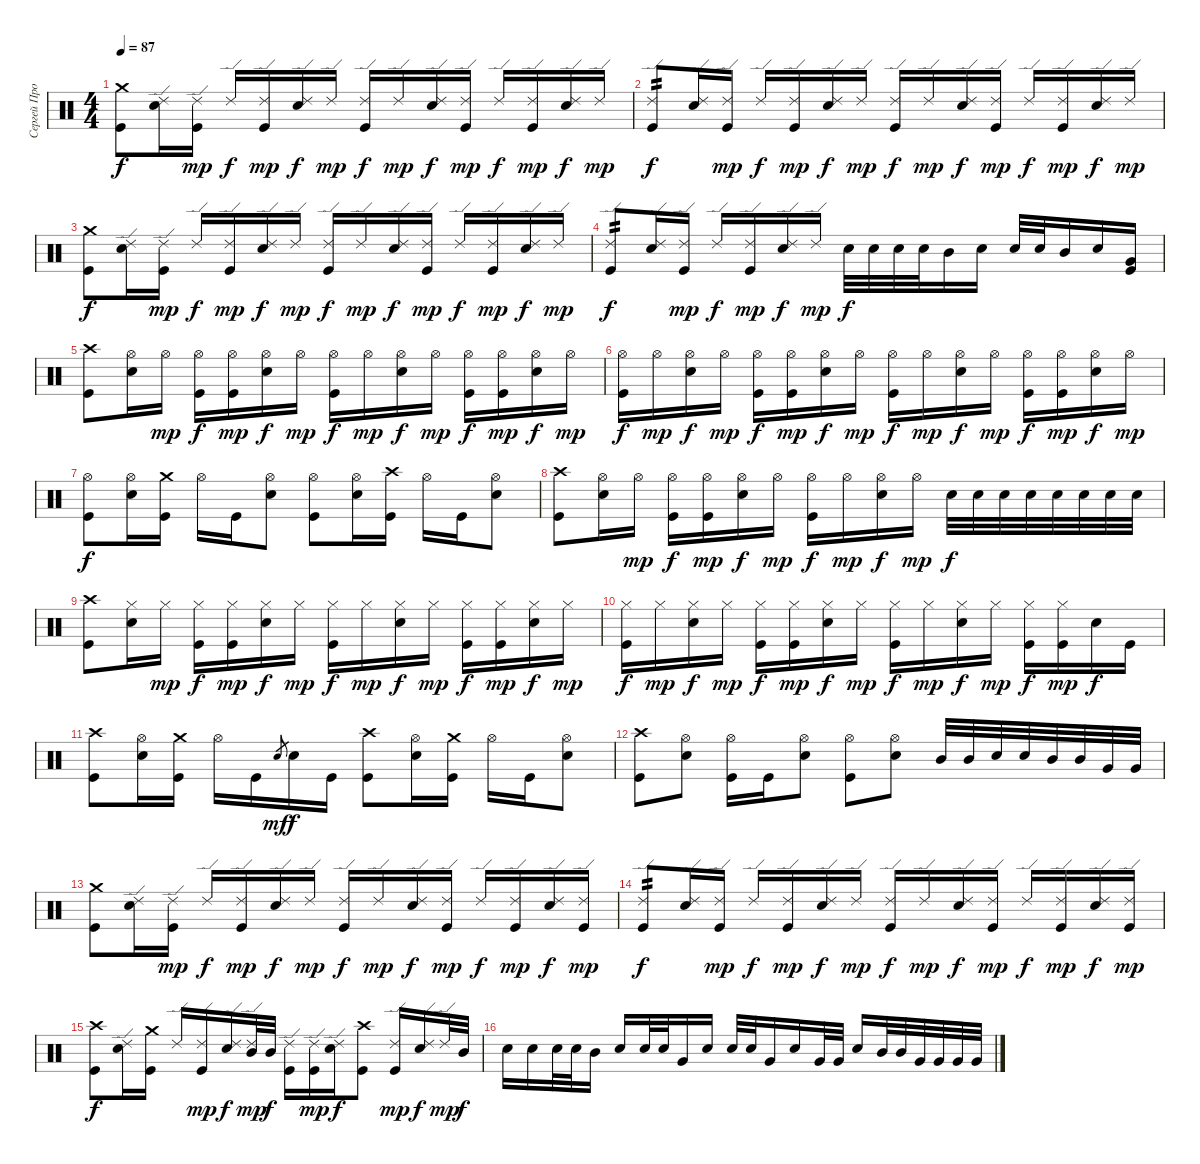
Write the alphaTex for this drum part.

\track ("Сергей Прокофьев" "Сергей Про") {instrument percussion}
\staff {score}
\articulation defaults
\ts (4 4)
\tempo 87
\clef neutral
\ks c
("Crash medium (hit)" "Kick (hit)").8{dy f} ("Ride (edge) 2" "Electric Snare (hit)").16 ("Ride (edge) 2" "Kick (hit)").16{dy mp} "Ride (edge) 2".16{dy f} ("Ride (edge) 2" "Kick (hit)").16{dy mp} ("Ride (edge) 2" "Electric Snare (hit)").16{dy f} "Ride (edge) 2".16{dy mp} ("Ride (edge) 2" "Kick (hit)").16{dy f} "Ride (edge) 2".16{dy mp} ("Ride (edge) 2" "Electric Snare (hit)").16{dy f} ("Ride (edge) 2" "Kick (hit)").16{dy mp} "Ride (edge) 2".16{dy f} ("Ride (edge) 2" "Kick (hit)").16{dy mp} ("Ride (edge) 2" "Electric Snare (hit)").16{dy f} "Ride (edge) 2".16{dy mp} |
("Ride (edge) 2" "Kick (hit)").8{tp 2 dy f} ("Ride (edge) 2" "Electric Snare (hit)").16 ("Ride (edge) 2" "Kick (hit)").16{dy mp} "Ride (edge) 2".16{dy f} ("Ride (edge) 2" "Kick (hit)").16{dy mp} ("Ride (edge) 2" "Electric Snare (hit)").16{dy f} "Ride (edge) 2".16{dy mp} ("Ride (edge) 2" "Kick (hit)").16{dy f} "Ride (edge) 2".16{dy mp} ("Ride (edge) 2" "Electric Snare (hit)").16{dy f} ("Ride (edge) 2" "Kick (hit)").16{dy mp} "Ride (edge) 2".16{dy f} ("Ride (edge) 2" "Kick (hit)").16{dy mp} ("Ride (edge) 2" "Electric Snare (hit)").16{dy f} "Ride (edge) 2".16{dy mp} |
("Crash medium (hit)" "Kick (hit)").8{dy f} ("Ride (edge) 2" "Electric Snare (hit)").16 ("Ride (edge) 2" "Kick (hit)").16{dy mp} "Ride (edge) 2".16{dy f} ("Ride (edge) 2" "Kick (hit)").16{dy mp} ("Ride (edge) 2" "Electric Snare (hit)").16{dy f} "Ride (edge) 2".16{dy mp} ("Ride (edge) 2" "Kick (hit)").16{dy f} "Ride (edge) 2".16{dy mp} ("Ride (edge) 2" "Electric Snare (hit)").16{dy f} ("Ride (edge) 2" "Kick (hit)").16{dy mp} "Ride (edge) 2".16{dy f} ("Ride (edge) 2" "Kick (hit)").16{dy mp} ("Ride (edge) 2" "Electric Snare (hit)").16{dy f} "Ride (edge) 2".16{dy mp} |
("Ride (edge) 2" "Kick (hit)").8{tp 2 dy f} ("Ride (edge) 2" "Electric Snare (hit)").16 ("Ride (edge) 2" "Kick (hit)").16{dy mp} "Ride (edge) 2".16{dy f} ("Ride (edge) 2" "Kick (hit)").16{dy mp} ("Ride (edge) 2" "Electric Snare (hit)").16{dy f} "Ride (edge) 2".16{dy mp} "Electric Snare (hit)".32{dy f} "Electric Snare (hit)".32 "Electric Snare (hit)".32 "Electric Snare (hit)".32 "Mid Tom (hit)".16 "Electric Snare (hit)".16 "Electric Snare (hit)".32 "Electric Snare (hit)".32 "Mid Tom (hit)".16 "Electric Snare (hit)".16 ("Very Low Tom (hit)" "Kick (hit)").16 |
("Crash high (hit)" "Kick (hit)").8 ("Hi-Hat (open)" "Electric Snare (hit)").16 "Hi-Hat (open)".16{dy mp} ("Hi-Hat (open)" "Kick (hit)").16{dy f} ("Hi-Hat (open)" "Kick (hit)").16{dy mp} ("Hi-Hat (open)" "Electric Snare (hit)").16{dy f} "Hi-Hat (open)".16{dy mp} ("Hi-Hat (open)" "Kick (hit)").16{dy f} "Hi-Hat (open)".16{dy mp} ("Hi-Hat (open)" "Electric Snare (hit)").16{dy f} "Hi-Hat (open)".16{dy mp} ("Hi-Hat (open)" "Kick (hit)").16{dy f} ("Hi-Hat (open)" "Kick (hit)").16{dy mp} ("Hi-Hat (open)" "Electric Snare (hit)").16{dy f} "Hi-Hat (open)".16{dy mp} |
("Hi-Hat (open)" "Kick (hit)").16{dy f} "Hi-Hat (open)".16{dy mp} ("Hi-Hat (open)" "Electric Snare (hit)").16{dy f} "Hi-Hat (open)".16{dy mp} ("Hi-Hat (open)" "Kick (hit)").16{dy f} ("Hi-Hat (open)" "Kick (hit)").16{dy mp} ("Hi-Hat (open)" "Electric Snare (hit)").16{dy f} "Hi-Hat (open)".16{dy mp} ("Hi-Hat (open)" "Kick (hit)").16{dy f} "Hi-Hat (open)".16{dy mp} ("Hi-Hat (open)" "Electric Snare (hit)").16{dy f} "Hi-Hat (open)".16{dy mp} ("Hi-Hat (open)" "Kick (hit)").16{dy f} ("Hi-Hat (open)" "Kick (hit)").16{dy mp} ("Hi-Hat (open)" "Electric Snare (hit)").16{dy f} "Hi-Hat (open)".16{dy mp} |
("Hi-Hat (open)" "Kick (hit)").8{dy f} ("Hi-Hat (open)" "Electric Snare (hit)").16 ("Crash medium (hit)" "Kick (hit)").16 "Hi-Hat (open)".16 "Kick (hit)".16 ("Hi-Hat (open)" "Electric Snare (hit)").8 ("Hi-Hat (open)" "Kick (hit)").8 ("Hi-Hat (open)" "Electric Snare (hit)").16 ("Crash high (hit)" "Kick (hit)").16 "Hi-Hat (open)".16 "Kick (hit)".16 ("Hi-Hat (open)" "Electric Snare (hit)").8 |
("Crash high (hit)" "Kick (hit)").8 ("Hi-Hat (open)" "Electric Snare (hit)").16 "Hi-Hat (open)".16{dy mp} ("Hi-Hat (open)" "Kick (hit)").16{dy f} ("Hi-Hat (open)" "Kick (hit)").16{dy mp} ("Hi-Hat (open)" "Electric Snare (hit)").16{dy f} "Hi-Hat (open)".16{dy mp} ("Hi-Hat (open)" "Kick (hit)").16{dy f} "Hi-Hat (open)".16{dy mp} ("Hi-Hat (open)" "Electric Snare (hit)").16{dy f} "Hi-Hat (open)".16{dy mp} "Electric Snare (hit)".32{dy f} "Electric Snare (hit)".32 "Electric Snare (hit)".32 "Electric Snare (hit)".32 "Electric Snare (hit)".32 "Electric Snare (hit)".32 "Electric Snare (hit)".32 "Electric Snare (hit)".32 |
("Crash high (hit)" "Kick (hit)").8 ("Hi-Hat (closed)" "Electric Snare (hit)").16 "Hi-Hat (closed)".16{dy mp} ("Hi-Hat (closed)" "Kick (hit)").16{dy f} ("Hi-Hat (closed)" "Kick (hit)").16{dy mp} ("Hi-Hat (closed)" "Electric Snare (hit)").16{dy f} "Hi-Hat (closed)".16{dy mp} ("Hi-Hat (closed)" "Kick (hit)").16{dy f} "Hi-Hat (closed)".16{dy mp} ("Hi-Hat (closed)" "Electric Snare (hit)").16{dy f} "Hi-Hat (closed)".16{dy mp} ("Hi-Hat (closed)" "Kick (hit)").16{dy f} ("Hi-Hat (closed)" "Kick (hit)").16{dy mp} ("Hi-Hat (closed)" "Electric Snare (hit)").16{dy f} "Hi-Hat (closed)".16{dy mp} |
("Hi-Hat (closed)" "Kick (hit)").16{dy f} "Hi-Hat (closed)".16{dy mp} ("Hi-Hat (closed)" "Electric Snare (hit)").16{dy f} "Hi-Hat (closed)".16{dy mp} ("Hi-Hat (closed)" "Kick (hit)").16{dy f} ("Hi-Hat (closed)" "Kick (hit)").16{dy mp} ("Hi-Hat (closed)" "Electric Snare (hit)").16{dy f} "Hi-Hat (closed)".16{dy mp} ("Hi-Hat (closed)" "Kick (hit)").16{dy f} "Hi-Hat (closed)".16{dy mp} ("Hi-Hat (closed)" "Electric Snare (hit)").16{dy f} "Hi-Hat (closed)".16{dy mp} ("Hi-Hat (closed)" "Kick (hit)").16{dy f} ("Hi-Hat (closed)" "Kick (hit)").16{dy mp} "Electric Snare (hit)".16{dy f} "Kick (hit)".16 |
("Crash high (hit)" "Kick (hit)").8 ("Hi-Hat (open)" "Electric Snare (hit)").16 ("Crash medium (hit)" "Kick (hit)").16 "Hi-Hat (open)".16 "Kick (hit)".16 "Electric Snare (hit)".8{gr dy mf} "Electric Snare (hit)".16{dy f} "Kick (hit)".16 ("Crash high (hit)" "Kick (hit)").8 ("Hi-Hat (open)" "Electric Snare (hit)").16 ("Crash medium (hit)" "Kick (hit)").16 "Hi-Hat (open)".16 "Kick (hit)".16 ("Hi-Hat (open)" "Electric Snare (hit)").8 |
("Crash high (hit)" "Kick (hit)").8 ("Hi-Hat (open)" "Electric Snare (hit)").8 ("Hi-Hat (open)" "Kick (hit)").16 "Kick (hit)".16 ("Hi-Hat (open)" "Electric Snare (hit)").8 ("Hi-Hat (open)" "Kick (hit)").8 ("Hi-Hat (open)" "Electric Snare (hit)").8 "Mid Tom (hit)".32 "Mid Tom (hit)".32 "Electric Snare (hit)".32 "Electric Snare (hit)".32 "Mid Tom (hit)".32 "Mid Tom (hit)".32 "Very Low Tom (hit)".32 "Very Low Tom (hit)".32 |
("Crash medium (hit)" "Kick (hit)").8 ("Ride (edge) 2" "Electric Snare (hit)").16 ("Ride (edge) 2" "Kick (hit)").16{dy mp} "Ride (edge) 2".16{dy f} ("Ride (edge) 2" "Kick (hit)").16{dy mp} ("Ride (edge) 2" "Electric Snare (hit)").16{dy f} "Ride (edge) 2".16{dy mp} ("Ride (edge) 2" "Kick (hit)").16{dy f} "Ride (edge) 2".16{dy mp} ("Ride (edge) 2" "Electric Snare (hit)").16{dy f} ("Ride (edge) 2" "Kick (hit)").16{dy mp} "Ride (edge) 2".16{dy f} ("Ride (edge) 2" "Kick (hit)").16{dy mp} ("Ride (edge) 2" "Electric Snare (hit)").16{dy f} ("Ride (edge) 2" "Kick (hit)").16{dy mp} |
("Ride (edge) 2" "Kick (hit)").8{tp 2 dy f} ("Ride (edge) 2" "Electric Snare (hit)").16 ("Ride (edge) 2" "Kick (hit)").16{dy mp} "Ride (edge) 2".16{dy f} ("Ride (edge) 2" "Kick (hit)").16{dy mp} ("Ride (edge) 2" "Electric Snare (hit)").16{dy f} "Ride (edge) 2".16{dy mp} ("Ride (edge) 2" "Kick (hit)").16{dy f} "Ride (edge) 2".16{dy mp} ("Ride (edge) 2" "Electric Snare (hit)").16{dy f} ("Ride (edge) 2" "Kick (hit)").16{dy mp} "Ride (edge) 2".16{dy f} ("Ride (edge) 2" "Kick (hit)").16{dy mp} ("Ride (edge) 2" "Electric Snare (hit)").16{dy f} ("Ride (edge) 2" "Kick (hit)").16{dy mp} |
("Crash high (hit)" "Kick (hit)").8{dy f} ("Ride (edge) 2" "Electric Snare (hit)").16 ("Crash medium (hit)" "Kick (hit)").16 "Ride (edge) 2".16 ("Ride (edge) 2" "Kick (hit)").16{dy mp} ("Ride (edge) 2" "Electric Snare (hit)").16{dy f} ("Ride (edge) 2" "Mid Tom (hit)").32{dy mp} "Mid Tom (hit)".32{dy f} ("Ride (edge) 2" "Kick (hit)").16 ("Ride (edge) 2" "Kick (hit)").16{dy mp} ("Ride (edge) 2" "Electric Snare (hit)").16{dy f} ("Crash high (hit)" "Kick (hit)").8 ("Ride (edge) 2" "Kick (hit)").16{dy mp} ("Ride (edge) 2" "Electric Snare (hit)").16{dy f} "Ride (edge) 2".32{dy mp} "Mid Tom (hit)".32{dy f} |
"Electric Snare (hit)".16 "Electric Snare (hit)".16 "Electric Snare (hit)".32 "Electric Snare (hit)".32 "Mid Tom (hit)".16 "Electric Snare (hit)".16 "Electric Snare (hit)".32 "Electric Snare (hit)".32 "Very Low Tom (hit)".16 "Electric Snare (hit)".16 "Electric Snare (hit)".32 "Electric Snare (hit)".32 "Very Low Tom (hit)".16 "Electric Snare (hit)".16 "Very Low Tom (hit)".32 "Very Low Tom (hit)".32 "Electric Snare (hit)".16 "Mid Tom (hit)".32 "Mid Tom (hit)".32 "Very Low Tom (hit)".32 "Very Low Tom (hit)".32 "Very Low Tom (hit)".32 "Very Low Tom (hit)".32
